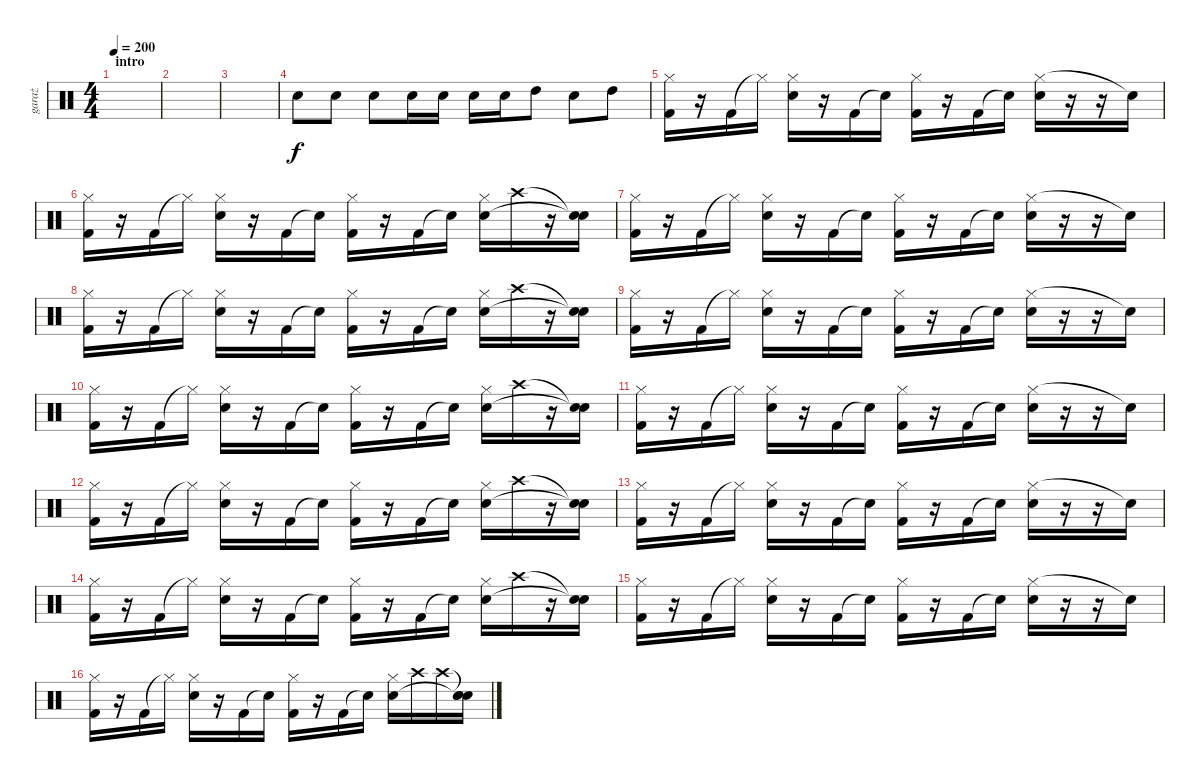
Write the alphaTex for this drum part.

\track ("garaż" "garaż") {instrument percussion}
\staff {score}
\articulation defaults
\ts (4 4)
\section ("" "intro")
\tempo 200
\clef neutral
\ks c
|
|
|
"Snare (hit) 2".8 "Snare (hit) 2".8 "Snare (hit) 2".8 "Snare (hit) 2".16 "Snare (hit) 2".16 "Snare (hit) 2".16 "Snare (hit) 2".16 "High Tom (hit)".8 "Snare (hit) 2".8 "High Tom (hit)".8 |
("Hi-Hat (closed)" "Kick (hit) 2").16 r.16 "Kick (hit) 2".16 "Hi-Hat (closed)"{t}.16 ("Hi-Hat (closed)" "Snare (hit) 2").16 r.16 "Kick (hit) 2".16 "Snare (hit)"{t}.16 ("Hi-Hat (closed)" "Kick (hit) 2").16 r.16 "Kick (hit) 2".16 "Snare (hit)"{t}.16 ("Hi-Hat (closed)" "Snare (hit) 2").16 r.16 r.16 "Snare (hit)"{t}.16 |
("Hi-Hat (closed)" "Kick (hit) 2").16 r.16 "Kick (hit) 2".16 "Hi-Hat (closed)"{t}.16 ("Hi-Hat (closed)" "Snare (hit) 2").16 r.16 "Kick (hit) 2".16 "Snare (hit)"{t}.16 ("Hi-Hat (closed)" "Kick (hit) 2").16 r.16 "Kick (hit) 2".16 "Snare (hit)"{t}.16 ("Hi-Hat (closed)" "Snare (hit) 2").16 "Crash high (hit)".16 r.16 ("Snare (hit)"{t} "Snare (hit)"{t}).16 |
("Hi-Hat (closed)" "Kick (hit) 2").16 r.16 "Kick (hit) 2".16 "Hi-Hat (closed)"{t}.16 ("Hi-Hat (closed)" "Snare (hit) 2").16 r.16 "Kick (hit) 2".16 "Snare (hit)"{t}.16 ("Hi-Hat (closed)" "Kick (hit) 2").16 r.16 "Kick (hit) 2".16 "Snare (hit)"{t}.16 ("Hi-Hat (closed)" "Snare (hit) 2").16 r.16 r.16 "Snare (hit)"{t}.16 |
("Hi-Hat (closed)" "Kick (hit) 2").16 r.16 "Kick (hit) 2".16 "Hi-Hat (closed)"{t}.16 ("Hi-Hat (closed)" "Snare (hit) 2").16 r.16 "Kick (hit) 2".16 "Snare (hit)"{t}.16 ("Hi-Hat (closed)" "Kick (hit) 2").16 r.16 "Kick (hit) 2".16 "Snare (hit)"{t}.16 ("Hi-Hat (closed)" "Snare (hit) 2").16 "Crash high (hit)".16 r.16 ("Snare (hit)"{t} "Snare (hit)"{t}).16 |
("Hi-Hat (closed)" "Kick (hit) 2").16 r.16 "Kick (hit) 2".16 "Hi-Hat (closed)"{t}.16 ("Hi-Hat (closed)" "Snare (hit) 2").16 r.16 "Kick (hit) 2".16 "Snare (hit)"{t}.16 ("Hi-Hat (closed)" "Kick (hit) 2").16 r.16 "Kick (hit) 2".16 "Snare (hit)"{t}.16 ("Hi-Hat (closed)" "Snare (hit) 2").16 r.16 r.16 "Snare (hit)"{t}.16 |
("Hi-Hat (closed)" "Kick (hit) 2").16 r.16 "Kick (hit) 2".16 "Hi-Hat (closed)"{t}.16 ("Hi-Hat (closed)" "Snare (hit) 2").16 r.16 "Kick (hit) 2".16 "Snare (hit)"{t}.16 ("Hi-Hat (closed)" "Kick (hit) 2").16 r.16 "Kick (hit) 2".16 "Snare (hit)"{t}.16 ("Hi-Hat (closed)" "Snare (hit) 2").16 "Crash high (hit)".16 r.16 ("Snare (hit)"{t} "Snare (hit)"{t}).16 |
("Hi-Hat (closed)" "Kick (hit) 2").16 r.16 "Kick (hit) 2".16 "Hi-Hat (closed)"{t}.16 ("Hi-Hat (closed)" "Snare (hit) 2").16 r.16 "Kick (hit) 2".16 "Snare (hit)"{t}.16 ("Hi-Hat (closed)" "Kick (hit) 2").16 r.16 "Kick (hit) 2".16 "Snare (hit)"{t}.16 ("Hi-Hat (closed)" "Snare (hit) 2").16 r.16 r.16 "Snare (hit)"{t}.16 |
("Hi-Hat (closed)" "Kick (hit) 2").16 r.16 "Kick (hit) 2".16 "Hi-Hat (closed)"{t}.16 ("Hi-Hat (closed)" "Snare (hit) 2").16 r.16 "Kick (hit) 2".16 "Snare (hit)"{t}.16 ("Hi-Hat (closed)" "Kick (hit) 2").16 r.16 "Kick (hit) 2".16 "Snare (hit)"{t}.16 ("Hi-Hat (closed)" "Snare (hit) 2").16 "Crash high (hit)".16 r.16 ("Snare (hit)"{t} "Snare (hit)"{t}).16 |
("Hi-Hat (closed)" "Kick (hit) 2").16 r.16 "Kick (hit) 2".16 "Hi-Hat (closed)"{t}.16 ("Hi-Hat (closed)" "Snare (hit) 2").16 r.16 "Kick (hit) 2".16 "Snare (hit)"{t}.16 ("Hi-Hat (closed)" "Kick (hit) 2").16 r.16 "Kick (hit) 2".16 "Snare (hit)"{t}.16 ("Hi-Hat (closed)" "Snare (hit) 2").16 r.16 r.16 "Snare (hit)"{t}.16 |
("Hi-Hat (closed)" "Kick (hit) 2").16 r.16 "Kick (hit) 2".16 "Hi-Hat (closed)"{t}.16 ("Hi-Hat (closed)" "Snare (hit) 2").16 r.16 "Kick (hit) 2".16 "Snare (hit)"{t}.16 ("Hi-Hat (closed)" "Kick (hit) 2").16 r.16 "Kick (hit) 2".16 "Snare (hit)"{t}.16 ("Hi-Hat (closed)" "Snare (hit) 2").16 "Crash high (hit)".16 r.16 ("Snare (hit)"{t} "Snare (hit)"{t}).16 |
("Hi-Hat (closed)" "Kick (hit) 2").16 r.16 "Kick (hit) 2".16 "Hi-Hat (closed)"{t}.16 ("Hi-Hat (closed)" "Snare (hit) 2").16 r.16 "Kick (hit) 2".16 "Snare (hit)"{t}.16 ("Hi-Hat (closed)" "Kick (hit) 2").16 r.16 "Kick (hit) 2".16 "Snare (hit)"{t}.16 ("Hi-Hat (closed)" "Snare (hit) 2").16 r.16 r.16 "Snare (hit)"{t}.16 |
("Hi-Hat (closed)" "Kick (hit) 2").16 r.16 "Kick (hit) 2".16 "Hi-Hat (closed)"{t}.16 ("Hi-Hat (closed)" "Snare (hit) 2").16 r.16 "Kick (hit) 2".16 "Snare (hit)"{t}.16 ("Hi-Hat (closed)" "Kick (hit) 2").16 r.16 "Kick (hit) 2".16 "Snare (hit)"{t}.16 ("Hi-Hat (closed)" "Snare (hit) 2").16 "Crash high (hit)".16 "Crash high (hit)".16 ("Snare (hit)"{t} "Snare (hit)"{t} "Snare (hit)").16
